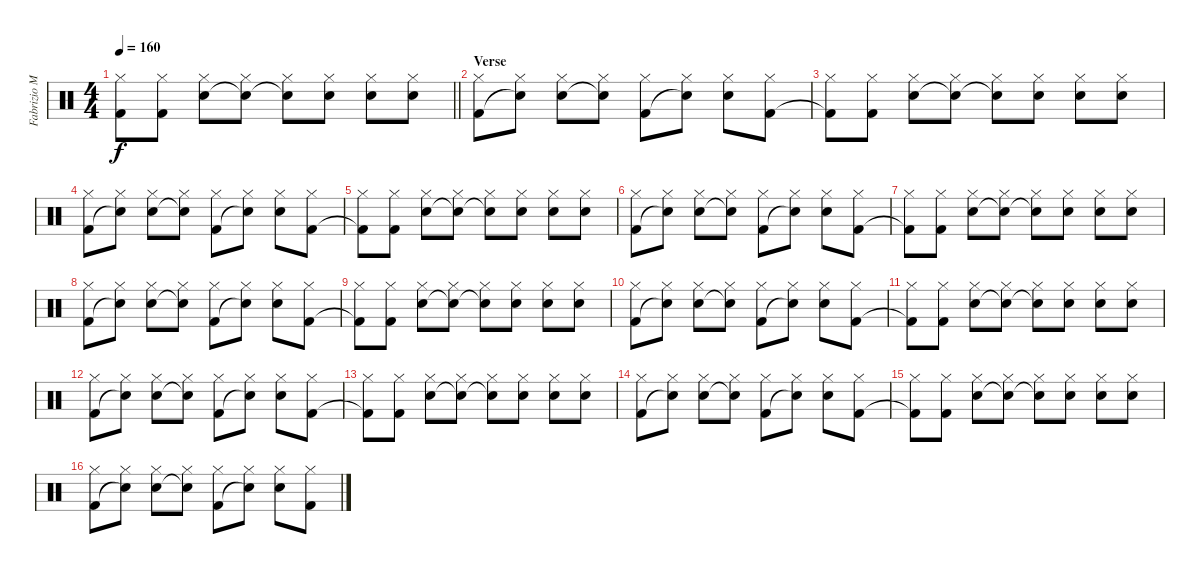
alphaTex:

\track ("Fabrizio Moretti" "Fabrizio M") {instrument percussion}
\staff {score}
\articulation defaults
\ts (4 4)
\tempo 160
\clef neutral
\barLineRight lightlight
\ks c
("Hi-Hat (closed)" "Kick (hit) 2"{t}).8{dy f} ("Hi-Hat (closed)" "Kick (hit) 2").8 ("Hi-Hat (closed)" "Electric Snare (hit)").8 ("Hi-Hat (closed)" "Snare (hit)"{t}).8 ("Hi-Hat (closed)" "Snare (hit)"{t}).8 ("Hi-Hat (closed)" "Electric Snare (hit)").8 ("Hi-Hat (closed)" "Electric Snare (hit)").8 ("Hi-Hat (closed)" "Electric Snare (hit)").8 |
\section ("" "Verse")
("Hi-Hat (closed)" "Kick (hit) 2").8 ("Hi-Hat (closed)" "Snare (hit)"{t}).8 ("Hi-Hat (closed)" "Electric Snare (hit)").8 ("Hi-Hat (closed)" "Snare (hit)"{t}).8 ("Hi-Hat (closed)" "Kick (hit) 2").8 ("Hi-Hat (closed)" "Snare (hit)"{t}).8 ("Hi-Hat (closed)" "Electric Snare (hit)").8 ("Hi-Hat (closed)" "Kick (hit) 2").8 |
("Hi-Hat (closed)" "Kick (hit) 2"{t}).8 ("Hi-Hat (closed)" "Kick (hit) 2").8 ("Hi-Hat (closed)" "Electric Snare (hit)").8 ("Hi-Hat (closed)" "Snare (hit)"{t}).8 ("Hi-Hat (closed)" "Snare (hit)"{t}).8 ("Hi-Hat (closed)" "Electric Snare (hit)").8 ("Hi-Hat (closed)" "Electric Snare (hit)").8 ("Hi-Hat (closed)" "Electric Snare (hit)").8 |
("Hi-Hat (closed)" "Kick (hit) 2").8 ("Hi-Hat (closed)" "Snare (hit)"{t}).8 ("Hi-Hat (closed)" "Electric Snare (hit)").8 ("Hi-Hat (closed)" "Snare (hit)"{t}).8 ("Hi-Hat (closed)" "Kick (hit) 2").8 ("Hi-Hat (closed)" "Snare (hit)"{t}).8 ("Hi-Hat (closed)" "Electric Snare (hit)").8 ("Hi-Hat (closed)" "Kick (hit) 2").8 |
("Hi-Hat (closed)" "Kick (hit) 2"{t}).8 ("Hi-Hat (closed)" "Kick (hit) 2").8 ("Hi-Hat (closed)" "Electric Snare (hit)").8 ("Hi-Hat (closed)" "Snare (hit)"{t}).8 ("Hi-Hat (closed)" "Snare (hit)"{t}).8 ("Hi-Hat (closed)" "Electric Snare (hit)").8 ("Hi-Hat (closed)" "Electric Snare (hit)").8 ("Hi-Hat (closed)" "Electric Snare (hit)").8 |
("Hi-Hat (closed)" "Kick (hit) 2").8 ("Hi-Hat (closed)" "Snare (hit)"{t}).8 ("Hi-Hat (closed)" "Electric Snare (hit)").8 ("Hi-Hat (closed)" "Snare (hit)"{t}).8 ("Hi-Hat (closed)" "Kick (hit) 2").8 ("Hi-Hat (closed)" "Snare (hit)"{t}).8 ("Hi-Hat (closed)" "Electric Snare (hit)").8 ("Hi-Hat (closed)" "Kick (hit) 2").8 |
("Hi-Hat (closed)" "Kick (hit) 2"{t}).8 ("Hi-Hat (closed)" "Kick (hit) 2").8 ("Hi-Hat (closed)" "Electric Snare (hit)").8 ("Hi-Hat (closed)" "Snare (hit)"{t}).8 ("Hi-Hat (closed)" "Snare (hit)"{t}).8 ("Hi-Hat (closed)" "Electric Snare (hit)").8 ("Hi-Hat (closed)" "Electric Snare (hit)").8 ("Hi-Hat (closed)" "Electric Snare (hit)").8 |
("Hi-Hat (closed)" "Kick (hit) 2").8 ("Hi-Hat (closed)" "Snare (hit)"{t}).8 ("Hi-Hat (closed)" "Electric Snare (hit)").8 ("Hi-Hat (closed)" "Snare (hit)"{t}).8 ("Hi-Hat (closed)" "Kick (hit) 2").8 ("Hi-Hat (closed)" "Snare (hit)"{t}).8 ("Hi-Hat (closed)" "Electric Snare (hit)").8 ("Hi-Hat (closed)" "Kick (hit) 2").8 |
("Hi-Hat (closed)" "Kick (hit) 2"{t}).8 ("Hi-Hat (closed)" "Kick (hit) 2").8 ("Hi-Hat (closed)" "Electric Snare (hit)").8 ("Hi-Hat (closed)" "Snare (hit)"{t}).8 ("Hi-Hat (closed)" "Snare (hit)"{t}).8 ("Hi-Hat (closed)" "Electric Snare (hit)").8 ("Hi-Hat (closed)" "Electric Snare (hit)").8 ("Hi-Hat (closed)" "Electric Snare (hit)").8 |
("Hi-Hat (closed)" "Kick (hit) 2").8 ("Hi-Hat (closed)" "Snare (hit)"{t}).8 ("Hi-Hat (closed)" "Electric Snare (hit)").8 ("Hi-Hat (closed)" "Snare (hit)"{t}).8 ("Hi-Hat (closed)" "Kick (hit) 2").8 ("Hi-Hat (closed)" "Snare (hit)"{t}).8 ("Hi-Hat (closed)" "Electric Snare (hit)").8 ("Hi-Hat (closed)" "Kick (hit) 2").8 |
("Hi-Hat (closed)" "Kick (hit) 2"{t}).8 ("Hi-Hat (closed)" "Kick (hit) 2").8 ("Hi-Hat (closed)" "Electric Snare (hit)").8 ("Hi-Hat (closed)" "Snare (hit)"{t}).8 ("Hi-Hat (closed)" "Snare (hit)"{t}).8 ("Hi-Hat (closed)" "Electric Snare (hit)").8 ("Hi-Hat (closed)" "Electric Snare (hit)").8 ("Hi-Hat (closed)" "Electric Snare (hit)").8 |
("Hi-Hat (closed)" "Kick (hit) 2").8 ("Hi-Hat (closed)" "Snare (hit)"{t}).8 ("Hi-Hat (closed)" "Electric Snare (hit)").8 ("Hi-Hat (closed)" "Snare (hit)"{t}).8 ("Hi-Hat (closed)" "Kick (hit) 2").8 ("Hi-Hat (closed)" "Snare (hit)"{t}).8 ("Hi-Hat (closed)" "Electric Snare (hit)").8 ("Hi-Hat (closed)" "Kick (hit) 2").8 |
("Hi-Hat (closed)" "Kick (hit) 2"{t}).8 ("Hi-Hat (closed)" "Kick (hit) 2").8 ("Hi-Hat (closed)" "Electric Snare (hit)").8 ("Hi-Hat (closed)" "Snare (hit)"{t}).8 ("Hi-Hat (closed)" "Snare (hit)"{t}).8 ("Hi-Hat (closed)" "Electric Snare (hit)").8 ("Hi-Hat (closed)" "Electric Snare (hit)").8 ("Hi-Hat (closed)" "Electric Snare (hit)").8 |
("Hi-Hat (closed)" "Kick (hit) 2").8 ("Hi-Hat (closed)" "Snare (hit)"{t}).8 ("Hi-Hat (closed)" "Electric Snare (hit)").8 ("Hi-Hat (closed)" "Snare (hit)"{t}).8 ("Hi-Hat (closed)" "Kick (hit) 2").8 ("Hi-Hat (closed)" "Snare (hit)"{t}).8 ("Hi-Hat (closed)" "Electric Snare (hit)").8 ("Hi-Hat (closed)" "Kick (hit) 2").8 |
("Hi-Hat (closed)" "Kick (hit) 2"{t}).8 ("Hi-Hat (closed)" "Kick (hit) 2").8 ("Hi-Hat (closed)" "Electric Snare (hit)").8 ("Hi-Hat (closed)" "Snare (hit)"{t}).8 ("Hi-Hat (closed)" "Snare (hit)"{t}).8 ("Hi-Hat (closed)" "Electric Snare (hit)").8 ("Hi-Hat (closed)" "Electric Snare (hit)").8 ("Hi-Hat (closed)" "Electric Snare (hit)").8 |
("Hi-Hat (closed)" "Kick (hit) 2").8 ("Hi-Hat (closed)" "Snare (hit)"{t}).8 ("Hi-Hat (closed)" "Electric Snare (hit)").8 ("Hi-Hat (closed)" "Snare (hit)"{t}).8 ("Hi-Hat (closed)" "Kick (hit) 2").8 ("Hi-Hat (closed)" "Snare (hit)"{t}).8 ("Hi-Hat (closed)" "Electric Snare (hit)").8 ("Hi-Hat (closed)" "Kick (hit) 2").8
